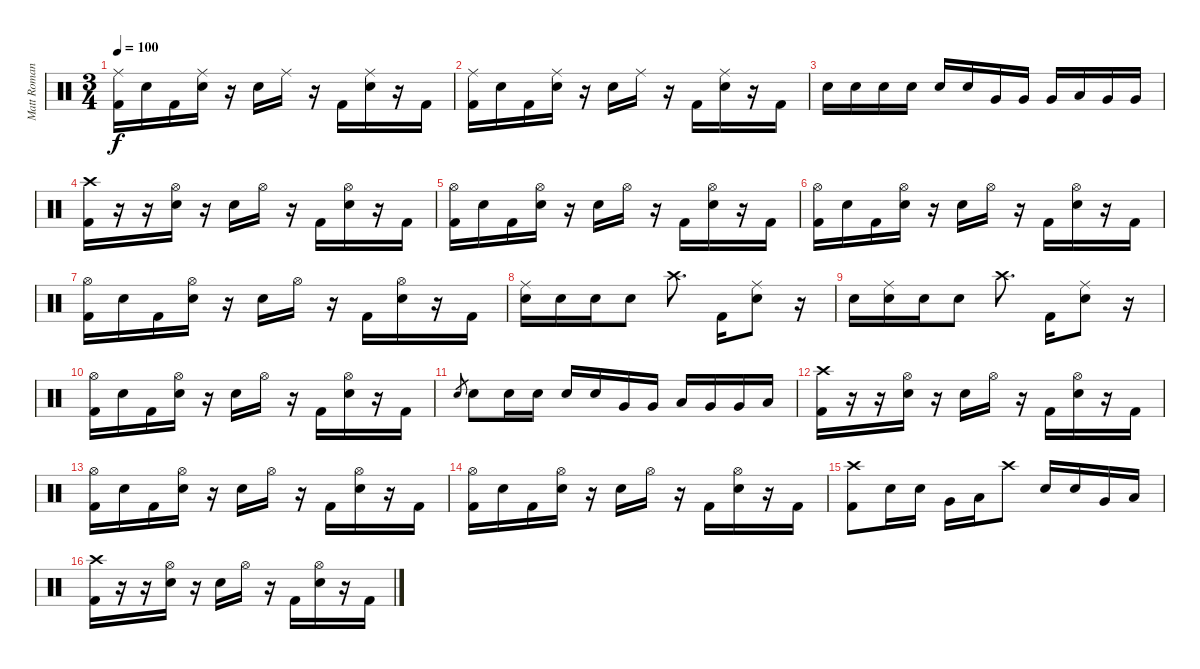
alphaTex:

\track ("Matt Romano" "Matt Roman") {instrument percussion}
\staff {score}
\articulation defaults
\ts (3 4)
\tempo 100
\clef neutral
\ks c
("Ride (middle)" "Kick (hit) 2").16{dy f} "Snare (hit) 2".16 "Kick (hit) 2".16 ("Ride (middle)" "Snare (hit) 2").16 r.16 "Snare (hit) 2".16 "Ride (middle)".16 r.16 "Kick (hit) 2".16 ("Ride (middle)" "Snare (hit) 2").16 r.16 "Kick (hit) 2".16 |
("Ride (middle)" "Kick (hit) 2").16 "Snare (hit) 2".16 "Kick (hit) 2".16 ("Ride (middle)" "Snare (hit) 2").16 r.16 "Snare (hit) 2".16 "Ride (middle)".16 r.16 "Kick (hit) 2".16 ("Ride (middle)" "Snare (hit) 2").16 r.16 "Kick (hit) 2".16 |
"Snare (hit) 2".16 "Snare (hit) 2".16 "Snare (hit) 2".16 "Snare (hit) 2".16 "Snare (hit) 2".16 "Snare (hit) 2".16 "Very Low Tom (hit)".16 "Very Low Tom (hit)".16 "Very Low Tom (hit)".16 "Low Tom (hit)".16 "Very Low Tom (hit)".16 "Very Low Tom (hit)".16 |
("Crash high (hit)" "Kick (hit) 2").16 r.16 r.16 ("Hi-Hat (open)" "Snare (hit) 2").16 r.16 "Snare (hit) 2".16 "Hi-Hat (open)".16 r.16 "Kick (hit) 2".16 ("Hi-Hat (open)" "Snare (hit) 2").16 r.16 "Kick (hit) 2".16 |
("Hi-Hat (open)" "Kick (hit) 2").16 "Snare (hit) 2".16 "Kick (hit) 2".16 ("Hi-Hat (open)" "Snare (hit) 2").16 r.16 "Snare (hit) 2".16 "Hi-Hat (open)".16 r.16 "Kick (hit) 2".16 ("Hi-Hat (open)" "Snare (hit) 2").16 r.16 "Kick (hit) 2".16 |
("Hi-Hat (open)" "Kick (hit) 2").16 "Snare (hit) 2".16 "Kick (hit) 2".16 ("Hi-Hat (open)" "Snare (hit) 2").16 r.16 "Snare (hit) 2".16 "Hi-Hat (open)".16 r.16 "Kick (hit) 2".16 ("Hi-Hat (open)" "Snare (hit) 2").16 r.16 "Kick (hit) 2".16 |
("Hi-Hat (open)" "Kick (hit) 2").16 "Snare (hit) 2".16 "Kick (hit) 2".16 ("Hi-Hat (open)" "Snare (hit) 2").16 r.16 "Snare (hit) 2".16 "Hi-Hat (open)".16 r.16 "Kick (hit) 2".16 ("Hi-Hat (open)" "Snare (hit) 2").16 r.16 "Kick (hit) 2".16 |
("Ride (middle)" "Snare (hit) 2").16 "Snare (hit) 2".16 "Snare (hit) 2".16 "Snare (hit) 2".8 "Crash high (hit)".8{d} "Kick (hit) 2".16 ("Ride (middle)" "Snare (hit) 2").8 r.16 |
"Snare (hit) 2".16 ("Ride (middle)" "Snare (hit) 2").16 "Snare (hit) 2".16 "Snare (hit) 2".8 "Crash high (hit)".8{d} "Kick (hit) 2".16 ("Ride (middle)" "Snare (hit) 2").8 r.16 |
("Hi-Hat (open)" "Kick (hit) 2").16 "Snare (hit) 2".16 "Kick (hit) 2".16 ("Hi-Hat (open)" "Snare (hit) 2").16 r.16 "Snare (hit) 2".16 "Hi-Hat (open)".16 r.16 "Kick (hit) 2".16 ("Hi-Hat (open)" "Snare (hit) 2").16 r.16 "Kick (hit) 2".16 |
"Snare (hit) 2".8{gr} "Snare (hit) 2".8 "Snare (hit) 2".16 "Snare (hit) 2".16 "Snare (hit) 2".16 "Snare (hit) 2".16 "Very Low Tom (hit)".16 "Very Low Tom (hit)".16 "Low Tom (hit)".16 "Very Low Tom (hit)".16 "Very Low Tom (hit)".16 "Low Tom (hit)".16 |
("Crash high (hit)" "Kick (hit) 2").16 r.16 r.16 ("Hi-Hat (open)" "Snare (hit) 2").16 r.16 "Snare (hit) 2".16 "Hi-Hat (open)".16 r.16 "Kick (hit) 2".16 ("Hi-Hat (open)" "Snare (hit) 2").16 r.16 "Kick (hit) 2".16 |
("Hi-Hat (open)" "Kick (hit) 2").16 "Snare (hit) 2".16 "Kick (hit) 2".16 ("Hi-Hat (open)" "Snare (hit) 2").16 r.16 "Snare (hit) 2".16 "Hi-Hat (open)".16 r.16 "Kick (hit) 2".16 ("Hi-Hat (open)" "Snare (hit) 2").16 r.16 "Kick (hit) 2".16 |
("Hi-Hat (open)" "Kick (hit) 2").16 "Snare (hit) 2".16 "Kick (hit) 2".16 ("Hi-Hat (open)" "Snare (hit) 2").16 r.16 "Snare (hit) 2".16 "Hi-Hat (open)".16 r.16 "Kick (hit) 2".16 ("Hi-Hat (open)" "Snare (hit) 2").16 r.16 "Kick (hit) 2".16 |
("Crash high (hit)" "Kick (hit) 2").8 "Snare (hit) 2".16 "Snare (hit) 2".16 "Very Low Tom (hit)".16 "Low Tom (hit)".16 "Crash high (hit)".8 "Snare (hit) 2".16 "Snare (hit) 2".16 "Very Low Tom (hit)".16 "Low Tom (hit)".16 |
("Crash high (hit)" "Kick (hit) 2").16 r.16 r.16 ("Hi-Hat (open)" "Snare (hit) 2").16 r.16 "Snare (hit) 2".16 "Hi-Hat (open)".16 r.16 "Kick (hit) 2".16 ("Hi-Hat (open)" "Snare (hit) 2").16 r.16 "Kick (hit) 2".16
